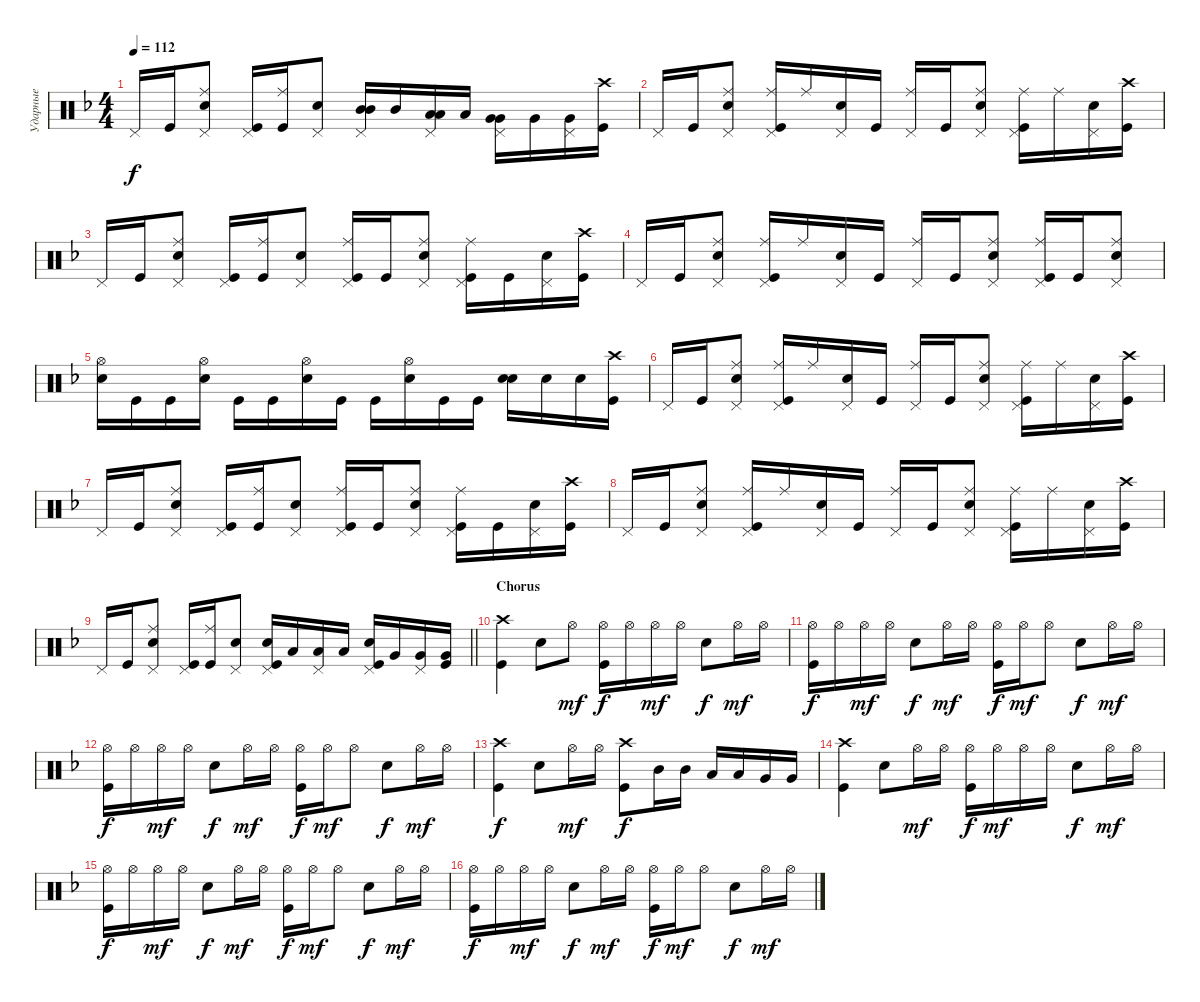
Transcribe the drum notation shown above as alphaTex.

\track ("Ударные" "Ударные") {instrument percussion}
\staff {score}
\articulation defaults
\ts (4 4)
\tempo 112
\clef neutral
\ks dminor "Pedal Hi-Hat (hit)".16{dy f} "Kick (hit)".16
("Snare (hit) 2" "Pedal Hi-Hat (hit)" "Ride (middle)").8 ("Kick (hit)" "Pedal Hi-Hat (hit)").16 ("Ride (middle)" "Kick (hit)").16 ("Snare (hit) 2" "Pedal Hi-Hat (hit)").8 ("Pedal Hi-Hat (hit)" "Mid Tom (hit)" "Mid Tom (hit)").16{bd 480} "Mid Tom (hit)".16 ("Low Tom (hit)" "Pedal Hi-Hat (hit)" "Low Tom (hit)").16{bd 240} "Low Tom (hit)".16 ("Very Low Tom (hit)" "Pedal Hi-Hat (hit)" "Very Low Tom (hit)").16{bd 240} "Very Low Tom (hit)".16 ("Pedal Hi-Hat (hit)" "Very Low Tom (hit)").16 ("Kick (hit)" "Crash high (hit)").16 |
"Pedal Hi-Hat (hit)".16 "Kick (hit)".16 ("Snare (hit) 2" "Pedal Hi-Hat (hit)" "Ride (middle)").8 ("Kick (hit)" "Pedal Hi-Hat (hit)" "Ride (middle)").16 "Ride (middle)".16 ("Snare (hit) 2" "Pedal Hi-Hat (hit)").16 "Kick (hit)".16 ("Pedal Hi-Hat (hit)" "Ride (middle)").16 "Kick (hit)".16 ("Snare (hit) 2" "Pedal Hi-Hat (hit)" "Ride (middle)").8 ("Kick (hit)" "Pedal Hi-Hat (hit)" "Ride (middle)").16 "Ride (middle)".16 ("Snare (hit) 2" "Pedal Hi-Hat (hit)").16 ("Kick (hit)" "Crash high (hit)").16 |
"Pedal Hi-Hat (hit)".16 "Kick (hit)".16 ("Snare (hit) 2" "Pedal Hi-Hat (hit)" "Ride (middle)").8 ("Kick (hit)" "Pedal Hi-Hat (hit)").16 ("Ride (middle)" "Kick (hit)").16 ("Snare (hit) 2" "Pedal Hi-Hat (hit)").8 ("Pedal Hi-Hat (hit)" "Ride (middle)" "Kick (hit)").16 "Kick (hit)".16 ("Snare (hit) 2" "Pedal Hi-Hat (hit)" "Ride (middle)").8 ("Kick (hit)" "Pedal Hi-Hat (hit)" "Ride (middle)").16 "Kick (hit)".16 ("Snare (hit) 2" "Pedal Hi-Hat (hit)").16 ("Kick (hit)" "Crash high (hit)").16 |
"Pedal Hi-Hat (hit)".16 "Kick (hit)".16 ("Snare (hit) 2" "Pedal Hi-Hat (hit)" "Ride (middle)").8 ("Kick (hit)" "Pedal Hi-Hat (hit)" "Ride (middle)").16 "Ride (middle)".16 ("Snare (hit) 2" "Pedal Hi-Hat (hit)").16 "Kick (hit)".16 ("Pedal Hi-Hat (hit)" "Ride (middle)").16 "Kick (hit)".16 ("Snare (hit) 2" "Pedal Hi-Hat (hit)" "Ride (middle)").8 ("Kick (hit)" "Pedal Hi-Hat (hit)" "Ride (middle)").16 "Kick (hit)".16 ("Snare (hit) 2" "Pedal Hi-Hat (hit)" "Ride (middle)").8 |
("Snare (hit) 2" "Hi-Hat (open)").16 "Kick (hit)".16 "Kick (hit)".16 ("Snare (hit) 2" "Hi-Hat (open)").16 "Kick (hit)".16 "Kick (hit)".16 ("Snare (hit) 2" "Hi-Hat (open)").16 "Kick (hit)".16 "Kick (hit)".16 ("Snare (hit) 2" "Hi-Hat (open)").16 "Kick (hit)".16 "Kick (hit)".16 ("Snare (hit) 2" "Snare (hit) 2").16{bd 240} "Snare (hit) 2".16 "Snare (hit) 2".16 ("Kick (hit)" "Crash high (hit)").16 |
"Pedal Hi-Hat (hit)".16 "Kick (hit)".16 ("Snare (hit) 2" "Pedal Hi-Hat (hit)" "Ride (middle)").8 ("Kick (hit)" "Pedal Hi-Hat (hit)" "Ride (middle)").16 "Ride (middle)".16 ("Snare (hit) 2" "Pedal Hi-Hat (hit)").16 "Kick (hit)".16 ("Pedal Hi-Hat (hit)" "Ride (middle)").16 "Kick (hit)".16 ("Snare (hit) 2" "Pedal Hi-Hat (hit)" "Ride (middle)").8 ("Kick (hit)" "Pedal Hi-Hat (hit)" "Ride (middle)").16 "Ride (middle)".16 ("Snare (hit) 2" "Pedal Hi-Hat (hit)").16 ("Kick (hit)" "Crash high (hit)").16 |
"Pedal Hi-Hat (hit)".16 "Kick (hit)".16 ("Snare (hit) 2" "Pedal Hi-Hat (hit)" "Ride (middle)").8 ("Kick (hit)" "Pedal Hi-Hat (hit)").16 ("Ride (middle)" "Kick (hit)").16 ("Snare (hit) 2" "Pedal Hi-Hat (hit)").8 ("Pedal Hi-Hat (hit)" "Ride (middle)" "Kick (hit)").16 "Kick (hit)".16 ("Snare (hit) 2" "Pedal Hi-Hat (hit)" "Ride (middle)").8 ("Kick (hit)" "Pedal Hi-Hat (hit)" "Ride (middle)").16 "Kick (hit)".16 ("Snare (hit) 2" "Pedal Hi-Hat (hit)").16 ("Kick (hit)" "Crash high (hit)").16 |
"Pedal Hi-Hat (hit)".16 "Kick (hit)".16 ("Snare (hit) 2" "Pedal Hi-Hat (hit)" "Ride (middle)").8 ("Kick (hit)" "Pedal Hi-Hat (hit)" "Ride (middle)").16 "Ride (middle)".16 ("Snare (hit) 2" "Pedal Hi-Hat (hit)").16 "Kick (hit)".16 ("Pedal Hi-Hat (hit)" "Ride (middle)").16 "Kick (hit)".16 ("Snare (hit) 2" "Pedal Hi-Hat (hit)" "Ride (middle)").8 ("Kick (hit)" "Pedal Hi-Hat (hit)" "Ride (middle)").16 "Ride (middle)".16 ("Snare (hit) 2" "Pedal Hi-Hat (hit)").16 ("Kick (hit)" "Crash high (hit)").16 |
\barLineRight lightlight "Pedal Hi-Hat (hit)".16 "Kick (hit)".16
("Snare (hit) 2" "Pedal Hi-Hat (hit)" "Ride (middle)").8 ("Kick (hit)" "Pedal Hi-Hat (hit)").16 ("Ride (middle)" "Kick (hit)").16 ("Snare (hit) 2" "Pedal Hi-Hat (hit)").8 ("Pedal Hi-Hat (hit)" "Kick (hit)" "Snare (hit) 2").16{bd 480} "Low Tom (hit)".16 ("Low Tom (hit)" "Pedal Hi-Hat (hit)").16 "Low Tom (hit)".16 ("Snare (hit) 2" "Pedal Hi-Hat (hit)" "Kick (hit)").16 "Very Low Tom (hit)".16 ("Pedal Hi-Hat (hit)" "Very Low Tom (hit)").16 ("Kick (hit)" "Very Low Tom (hit)").16 |
\section ("" "Chorus")
("Kick (hit)" "Crash high (hit)").4 "Snare (hit) 2".8 "Hi-Hat (open)".8{dy mf} ("Hi-Hat (open)" "Kick (hit)").16{dy f} "Hi-Hat (open)".16 "Hi-Hat (open)".16{dy mf} "Hi-Hat (open)".16 "Snare (hit) 2".8{dy f} "Hi-Hat (open)".16{dy mf} "Hi-Hat (open)".16 |
("Kick (hit)" "Hi-Hat (open)").16{dy f} "Hi-Hat (open)".16 "Hi-Hat (open)".16{dy mf} "Hi-Hat (open)".16 "Snare (hit) 2".8{dy f} "Hi-Hat (open)".16{dy mf} "Hi-Hat (open)".16 ("Hi-Hat (open)" "Kick (hit)").16{dy f} "Hi-Hat (open)".16{dy mf} "Hi-Hat (open)".8 "Snare (hit) 2".8{dy f} "Hi-Hat (open)".16{dy mf} "Hi-Hat (open)".16 |
("Kick (hit)" "Hi-Hat (open)").16{dy f} "Hi-Hat (open)".16 "Hi-Hat (open)".16{dy mf} "Hi-Hat (open)".16 "Snare (hit) 2".8{dy f} "Hi-Hat (open)".16{dy mf} "Hi-Hat (open)".16 ("Hi-Hat (open)" "Kick (hit)").16{dy f} "Hi-Hat (open)".16{dy mf} "Hi-Hat (open)".8 "Snare (hit) 2".8{dy f} "Hi-Hat (open)".16{dy mf} "Hi-Hat (open)".16 |
("Kick (hit)" "Crash high (hit)").4{dy f} "Snare (hit) 2".8 "Hi-Hat (open)".16{dy mf} "Hi-Hat (open)".16 ("Kick (hit)" "Crash high (hit)").8{dy f} "Mid Tom (hit)".16 "Mid Tom (hit)".16 "Low Tom (hit)".16 "Low Tom (hit)".16 "Very Low Tom (hit)".16 "Very Low Tom (hit)".16 |
("Kick (hit)" "Crash high (hit)").4 "Snare (hit) 2".8 "Hi-Hat (open)".16{dy mf} "Hi-Hat (open)".16 ("Hi-Hat (open)" "Kick (hit)").16{dy f} "Hi-Hat (open)".16{dy mf} "Hi-Hat (open)".16 "Hi-Hat (open)".16 "Snare (hit) 2".8{dy f} "Hi-Hat (open)".16{dy mf} "Hi-Hat (open)".16 |
("Kick (hit)" "Hi-Hat (open)").16{dy f} "Hi-Hat (open)".16 "Hi-Hat (open)".16{dy mf} "Hi-Hat (open)".16 "Snare (hit) 2".8{dy f} "Hi-Hat (open)".16{dy mf} "Hi-Hat (open)".16 ("Hi-Hat (open)" "Kick (hit)").16{dy f} "Hi-Hat (open)".16{dy mf} "Hi-Hat (open)".8 "Snare (hit) 2".8{dy f} "Hi-Hat (open)".16{dy mf} "Hi-Hat (open)".16 |
("Kick (hit)" "Hi-Hat (open)").16{dy f} "Hi-Hat (open)".16 "Hi-Hat (open)".16{dy mf} "Hi-Hat (open)".16 "Snare (hit) 2".8{dy f} "Hi-Hat (open)".16{dy mf} "Hi-Hat (open)".16 ("Hi-Hat (open)" "Kick (hit)").16{dy f} "Hi-Hat (open)".16{dy mf} "Hi-Hat (open)".8 "Snare (hit) 2".8{dy f} "Hi-Hat (open)".16{dy mf} "Hi-Hat (open)".16
